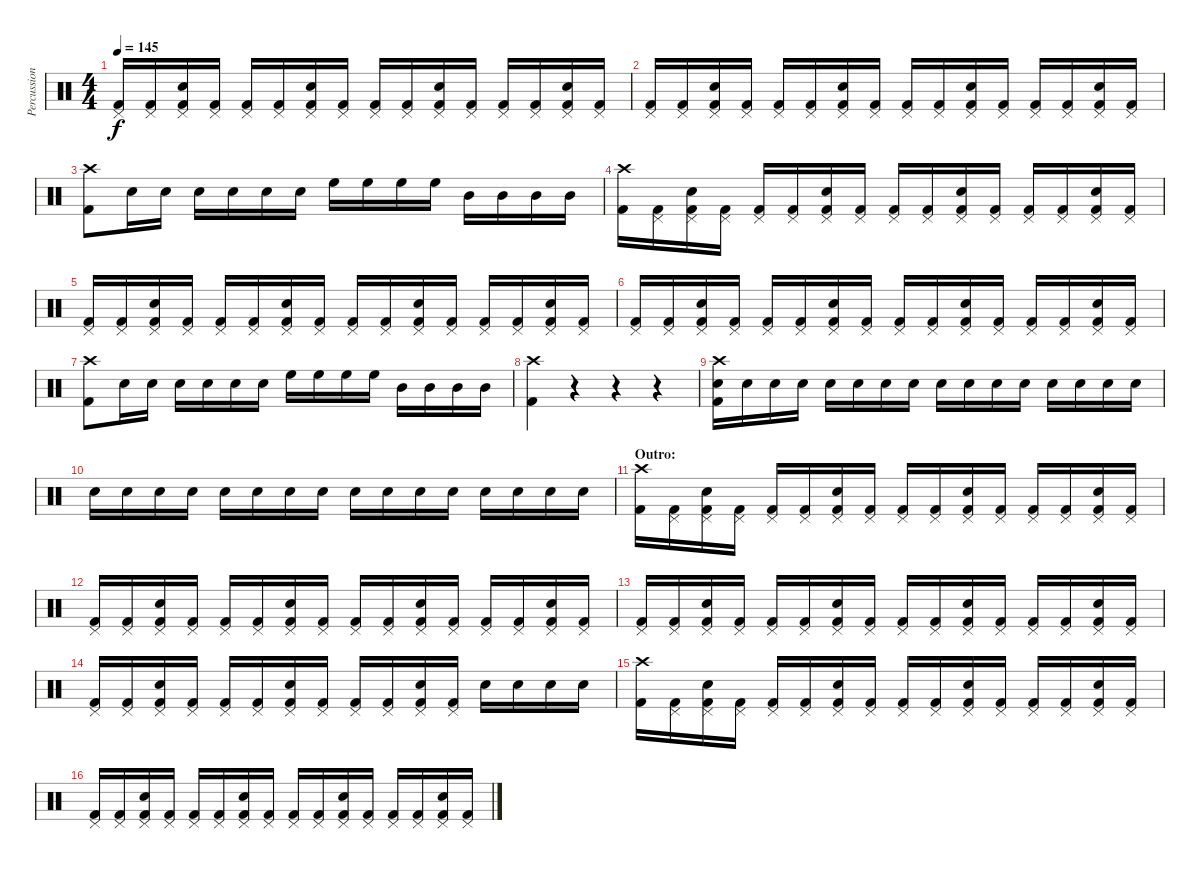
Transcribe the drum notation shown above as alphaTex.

\track ("Percussion" "Percussion") {instrument percussion}
\staff {score}
\articulation defaults
\ts (4 4)
\tempo 145
\clef neutral
\ks c
("Pedal Hi-Hat (hit)" "Kick (hit) 2").16{dy f} ("Pedal Hi-Hat (hit)" "Kick (hit) 2").16 ("Pedal Hi-Hat (hit)" "Snare (hit) 2" "Kick (hit) 2").16 ("Pedal Hi-Hat (hit)" "Kick (hit) 2").16 ("Pedal Hi-Hat (hit)" "Kick (hit) 2").16 ("Pedal Hi-Hat (hit)" "Kick (hit) 2").16 ("Pedal Hi-Hat (hit)" "Snare (hit) 2" "Kick (hit) 2").16 ("Pedal Hi-Hat (hit)" "Kick (hit) 2").16 ("Pedal Hi-Hat (hit)" "Kick (hit) 2").16 ("Pedal Hi-Hat (hit)" "Kick (hit) 2").16 ("Pedal Hi-Hat (hit)" "Snare (hit) 2" "Kick (hit) 2").16 ("Pedal Hi-Hat (hit)" "Kick (hit) 2").16 ("Pedal Hi-Hat (hit)" "Kick (hit) 2").16 ("Pedal Hi-Hat (hit)" "Kick (hit) 2").16 ("Pedal Hi-Hat (hit)" "Snare (hit) 2" "Kick (hit) 2").16 ("Pedal Hi-Hat (hit)" "Kick (hit) 2").16 |
("Pedal Hi-Hat (hit)" "Kick (hit) 2").16 ("Pedal Hi-Hat (hit)" "Kick (hit) 2").16 ("Pedal Hi-Hat (hit)" "Snare (hit) 2" "Kick (hit) 2").16 ("Pedal Hi-Hat (hit)" "Kick (hit) 2").16 ("Pedal Hi-Hat (hit)" "Kick (hit) 2").16 ("Pedal Hi-Hat (hit)" "Kick (hit) 2").16 ("Pedal Hi-Hat (hit)" "Snare (hit) 2" "Kick (hit) 2").16 ("Pedal Hi-Hat (hit)" "Kick (hit) 2").16 ("Pedal Hi-Hat (hit)" "Kick (hit) 2").16 ("Pedal Hi-Hat (hit)" "Kick (hit) 2").16 ("Pedal Hi-Hat (hit)" "Snare (hit) 2" "Kick (hit) 2").16 ("Pedal Hi-Hat (hit)" "Kick (hit) 2").16 ("Pedal Hi-Hat (hit)" "Kick (hit) 2").16 ("Pedal Hi-Hat (hit)" "Kick (hit) 2").16 ("Pedal Hi-Hat (hit)" "Snare (hit) 2" "Kick (hit) 2").16 ("Pedal Hi-Hat (hit)" "Kick (hit) 2").16 |
("Crash high (hit)" "Kick (hit) 2").8 "Snare (hit) 2".16 "Snare (hit) 2".16 "Snare (hit) 2".16 "Snare (hit) 2".16 "Snare (hit) 2".16 "Snare (hit) 2".16 "High Floor Tom (hit)".16 "High Floor Tom (hit)".16 "High Floor Tom (hit)".16 "High Floor Tom (hit)".16 "Mid Tom (hit)".16 "Mid Tom (hit)".16 "Mid Tom (hit)".16 "Mid Tom (hit)".16 |
("Crash high (hit)" "Kick (hit) 2").16 ("Pedal Hi-Hat (hit)" "Kick (hit) 2").16 ("Pedal Hi-Hat (hit)" "Snare (hit) 2" "Kick (hit) 2").16 ("Pedal Hi-Hat (hit)" "Kick (hit) 2").16 ("Pedal Hi-Hat (hit)" "Kick (hit) 2").16 ("Pedal Hi-Hat (hit)" "Kick (hit) 2").16 ("Pedal Hi-Hat (hit)" "Snare (hit) 2" "Kick (hit) 2").16 ("Pedal Hi-Hat (hit)" "Kick (hit) 2").16 ("Pedal Hi-Hat (hit)" "Kick (hit) 2").16 ("Pedal Hi-Hat (hit)" "Kick (hit) 2").16 ("Pedal Hi-Hat (hit)" "Snare (hit) 2" "Kick (hit) 2").16 ("Pedal Hi-Hat (hit)" "Kick (hit) 2").16 ("Pedal Hi-Hat (hit)" "Kick (hit) 2").16 ("Pedal Hi-Hat (hit)" "Kick (hit) 2").16 ("Pedal Hi-Hat (hit)" "Snare (hit) 2" "Kick (hit) 2").16 ("Pedal Hi-Hat (hit)" "Kick (hit) 2").16 |
("Pedal Hi-Hat (hit)" "Kick (hit) 2").16 ("Pedal Hi-Hat (hit)" "Kick (hit) 2").16 ("Pedal Hi-Hat (hit)" "Snare (hit) 2" "Kick (hit) 2").16 ("Pedal Hi-Hat (hit)" "Kick (hit) 2").16 ("Pedal Hi-Hat (hit)" "Kick (hit) 2").16 ("Pedal Hi-Hat (hit)" "Kick (hit) 2").16 ("Pedal Hi-Hat (hit)" "Snare (hit) 2" "Kick (hit) 2").16 ("Pedal Hi-Hat (hit)" "Kick (hit) 2").16 ("Pedal Hi-Hat (hit)" "Kick (hit) 2").16 ("Pedal Hi-Hat (hit)" "Kick (hit) 2").16 ("Pedal Hi-Hat (hit)" "Snare (hit) 2" "Kick (hit) 2").16 ("Pedal Hi-Hat (hit)" "Kick (hit) 2").16 ("Pedal Hi-Hat (hit)" "Kick (hit) 2").16 ("Pedal Hi-Hat (hit)" "Kick (hit) 2").16 ("Pedal Hi-Hat (hit)" "Snare (hit) 2" "Kick (hit) 2").16 ("Pedal Hi-Hat (hit)" "Kick (hit) 2").16 |
("Pedal Hi-Hat (hit)" "Kick (hit) 2").16 ("Pedal Hi-Hat (hit)" "Kick (hit) 2").16 ("Pedal Hi-Hat (hit)" "Snare (hit) 2" "Kick (hit) 2").16 ("Pedal Hi-Hat (hit)" "Kick (hit) 2").16 ("Pedal Hi-Hat (hit)" "Kick (hit) 2").16 ("Pedal Hi-Hat (hit)" "Kick (hit) 2").16 ("Pedal Hi-Hat (hit)" "Snare (hit) 2" "Kick (hit) 2").16 ("Pedal Hi-Hat (hit)" "Kick (hit) 2").16 ("Pedal Hi-Hat (hit)" "Kick (hit) 2").16 ("Pedal Hi-Hat (hit)" "Kick (hit) 2").16 ("Pedal Hi-Hat (hit)" "Snare (hit) 2" "Kick (hit) 2").16 ("Pedal Hi-Hat (hit)" "Kick (hit) 2").16 ("Pedal Hi-Hat (hit)" "Kick (hit) 2").16 ("Pedal Hi-Hat (hit)" "Kick (hit) 2").16 ("Pedal Hi-Hat (hit)" "Snare (hit) 2" "Kick (hit) 2").16 ("Pedal Hi-Hat (hit)" "Kick (hit) 2").16 |
("Crash high (hit)" "Kick (hit) 2").8 "Snare (hit) 2".16 "Snare (hit) 2".16 "Snare (hit) 2".16 "Snare (hit) 2".16 "Snare (hit) 2".16 "Snare (hit) 2".16 "High Floor Tom (hit)".16 "High Floor Tom (hit)".16 "High Floor Tom (hit)".16 "High Floor Tom (hit)".16 "Mid Tom (hit)".16 "Mid Tom (hit)".16 "Mid Tom (hit)".16 "Mid Tom (hit)".16 |
("Crash high (hit)" "Kick (hit) 2").4 r.4 r.4 r.4 |
("Crash high (hit)" "Snare (hit) 2" "Kick (hit) 2").16 "Snare (hit) 2".16 "Snare (hit) 2".16 "Snare (hit) 2".16 "Snare (hit) 2".16 "Snare (hit) 2".16 "Snare (hit) 2".16 "Snare (hit) 2".16 "Snare (hit) 2".16 "Snare (hit) 2".16 "Snare (hit) 2".16 "Snare (hit) 2".16 "Snare (hit) 2".16 "Snare (hit) 2".16 "Snare (hit) 2".16 "Snare (hit) 2".16 |
"Snare (hit) 2".16 "Snare (hit) 2".16 "Snare (hit) 2".16 "Snare (hit) 2".16 "Snare (hit) 2".16 "Snare (hit) 2".16 "Snare (hit) 2".16 "Snare (hit) 2".16 "Snare (hit) 2".16 "Snare (hit) 2".16 "Snare (hit) 2".16 "Snare (hit) 2".16 "Snare (hit) 2".16 "Snare (hit) 2".16 "Snare (hit) 2".16 "Snare (hit) 2".16 |
\section ("" "Outro:")
("Crash high (hit)" "Kick (hit) 2").16 ("Pedal Hi-Hat (hit)" "Kick (hit) 2").16 ("Pedal Hi-Hat (hit)" "Snare (hit) 2" "Kick (hit) 2").16 ("Pedal Hi-Hat (hit)" "Kick (hit) 2").16 ("Pedal Hi-Hat (hit)" "Kick (hit) 2").16 ("Pedal Hi-Hat (hit)" "Kick (hit) 2").16 ("Pedal Hi-Hat (hit)" "Snare (hit) 2" "Kick (hit) 2").16 ("Pedal Hi-Hat (hit)" "Kick (hit) 2").16 ("Pedal Hi-Hat (hit)" "Kick (hit) 2").16 ("Pedal Hi-Hat (hit)" "Kick (hit) 2").16 ("Pedal Hi-Hat (hit)" "Snare (hit) 2" "Kick (hit) 2").16 ("Pedal Hi-Hat (hit)" "Kick (hit) 2").16 ("Pedal Hi-Hat (hit)" "Kick (hit) 2").16 ("Pedal Hi-Hat (hit)" "Kick (hit) 2").16 ("Pedal Hi-Hat (hit)" "Snare (hit) 2" "Kick (hit) 2").16 ("Pedal Hi-Hat (hit)" "Kick (hit) 2").16 |
("Pedal Hi-Hat (hit)" "Kick (hit) 2").16 ("Pedal Hi-Hat (hit)" "Kick (hit) 2").16 ("Pedal Hi-Hat (hit)" "Snare (hit) 2" "Kick (hit) 2").16 ("Pedal Hi-Hat (hit)" "Kick (hit) 2").16 ("Pedal Hi-Hat (hit)" "Kick (hit) 2").16 ("Pedal Hi-Hat (hit)" "Kick (hit) 2").16 ("Pedal Hi-Hat (hit)" "Snare (hit) 2" "Kick (hit) 2").16 ("Pedal Hi-Hat (hit)" "Kick (hit) 2").16 ("Pedal Hi-Hat (hit)" "Kick (hit) 2").16 ("Pedal Hi-Hat (hit)" "Kick (hit) 2").16 ("Pedal Hi-Hat (hit)" "Snare (hit) 2" "Kick (hit) 2").16 ("Pedal Hi-Hat (hit)" "Kick (hit) 2").16 ("Pedal Hi-Hat (hit)" "Kick (hit) 2").16 ("Pedal Hi-Hat (hit)" "Kick (hit) 2").16 ("Pedal Hi-Hat (hit)" "Snare (hit) 2" "Kick (hit) 2").16 ("Pedal Hi-Hat (hit)" "Kick (hit) 2").16 |
("Pedal Hi-Hat (hit)" "Kick (hit) 2").16 ("Pedal Hi-Hat (hit)" "Kick (hit) 2").16 ("Pedal Hi-Hat (hit)" "Snare (hit) 2" "Kick (hit) 2").16 ("Pedal Hi-Hat (hit)" "Kick (hit) 2").16 ("Pedal Hi-Hat (hit)" "Kick (hit) 2").16 ("Pedal Hi-Hat (hit)" "Kick (hit) 2").16 ("Pedal Hi-Hat (hit)" "Snare (hit) 2" "Kick (hit) 2").16 ("Pedal Hi-Hat (hit)" "Kick (hit) 2").16 ("Pedal Hi-Hat (hit)" "Kick (hit) 2").16 ("Pedal Hi-Hat (hit)" "Kick (hit) 2").16 ("Pedal Hi-Hat (hit)" "Snare (hit) 2" "Kick (hit) 2").16 ("Pedal Hi-Hat (hit)" "Kick (hit) 2").16 ("Pedal Hi-Hat (hit)" "Kick (hit) 2").16 ("Pedal Hi-Hat (hit)" "Kick (hit) 2").16 ("Pedal Hi-Hat (hit)" "Snare (hit) 2" "Kick (hit) 2").16 ("Pedal Hi-Hat (hit)" "Kick (hit) 2").16 |
("Pedal Hi-Hat (hit)" "Kick (hit) 2").16 ("Pedal Hi-Hat (hit)" "Kick (hit) 2").16 ("Pedal Hi-Hat (hit)" "Snare (hit) 2" "Kick (hit) 2").16 ("Pedal Hi-Hat (hit)" "Kick (hit) 2").16 ("Pedal Hi-Hat (hit)" "Kick (hit) 2").16 ("Pedal Hi-Hat (hit)" "Kick (hit) 2").16 ("Pedal Hi-Hat (hit)" "Snare (hit) 2" "Kick (hit) 2").16 ("Pedal Hi-Hat (hit)" "Kick (hit) 2").16 ("Pedal Hi-Hat (hit)" "Kick (hit) 2").16 ("Pedal Hi-Hat (hit)" "Kick (hit) 2").16 ("Pedal Hi-Hat (hit)" "Snare (hit) 2" "Kick (hit) 2").16 ("Pedal Hi-Hat (hit)" "Kick (hit) 2").16 "Snare (hit) 2".16 "Snare (hit) 2".16 "Snare (hit) 2".16 "Snare (hit) 2".16 |
("Crash high (hit)" "Kick (hit) 2").16 ("Pedal Hi-Hat (hit)" "Kick (hit) 2").16 ("Pedal Hi-Hat (hit)" "Snare (hit) 2" "Kick (hit) 2").16 ("Pedal Hi-Hat (hit)" "Kick (hit) 2").16 ("Pedal Hi-Hat (hit)" "Kick (hit) 2").16 ("Pedal Hi-Hat (hit)" "Kick (hit) 2").16 ("Pedal Hi-Hat (hit)" "Snare (hit) 2" "Kick (hit) 2").16 ("Pedal Hi-Hat (hit)" "Kick (hit) 2").16 ("Pedal Hi-Hat (hit)" "Kick (hit) 2").16 ("Pedal Hi-Hat (hit)" "Kick (hit) 2").16 ("Pedal Hi-Hat (hit)" "Snare (hit) 2" "Kick (hit) 2").16 ("Pedal Hi-Hat (hit)" "Kick (hit) 2").16 ("Pedal Hi-Hat (hit)" "Kick (hit) 2").16 ("Pedal Hi-Hat (hit)" "Kick (hit) 2").16 ("Pedal Hi-Hat (hit)" "Snare (hit) 2" "Kick (hit) 2").16 ("Pedal Hi-Hat (hit)" "Kick (hit) 2").16 |
("Pedal Hi-Hat (hit)" "Kick (hit) 2").16 ("Pedal Hi-Hat (hit)" "Kick (hit) 2").16 ("Pedal Hi-Hat (hit)" "Snare (hit) 2" "Kick (hit) 2").16 ("Pedal Hi-Hat (hit)" "Kick (hit) 2").16 ("Pedal Hi-Hat (hit)" "Kick (hit) 2").16 ("Pedal Hi-Hat (hit)" "Kick (hit) 2").16 ("Pedal Hi-Hat (hit)" "Snare (hit) 2" "Kick (hit) 2").16 ("Pedal Hi-Hat (hit)" "Kick (hit) 2").16 ("Pedal Hi-Hat (hit)" "Kick (hit) 2").16 ("Pedal Hi-Hat (hit)" "Kick (hit) 2").16 ("Pedal Hi-Hat (hit)" "Snare (hit) 2" "Kick (hit) 2").16 ("Pedal Hi-Hat (hit)" "Kick (hit) 2").16 ("Pedal Hi-Hat (hit)" "Kick (hit) 2").16 ("Pedal Hi-Hat (hit)" "Kick (hit) 2").16 ("Pedal Hi-Hat (hit)" "Snare (hit) 2" "Kick (hit) 2").16 ("Pedal Hi-Hat (hit)" "Kick (hit) 2").16
